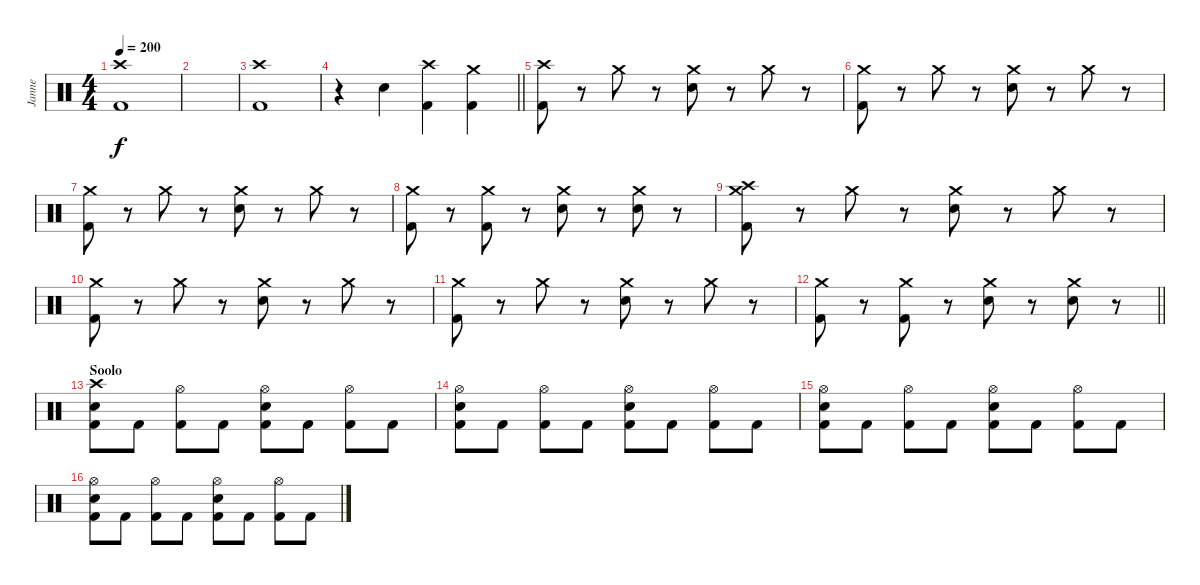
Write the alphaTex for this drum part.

\track ("Janne" "Janne") {instrument percussion}
\staff {score}
\articulation defaults
\ts (4 4)
\tempo 200
\clef neutral
\ks c
("Crash high (hit)" "Kick (hit) 2").1{dy f} |
|
("Crash high (hit)" "Kick (hit) 2").1 |
\barLineRight lightlight
r.4 "Electric Snare (hit)".4 ("Crash high (hit)" "Kick (hit) 2").4 ("Crash medium (hit)" "Kick (hit) 2").4 |
\section ("" "")
("Crash high (hit)" "Kick (hit) 2").8 r.8 "Crash medium (hit)".8 r.8 ("Crash medium (hit)" "Electric Snare (hit)").8 r.8 "Crash medium (hit)".8 r.8 |
("Crash medium (hit)" "Kick (hit) 2").8 r.8 "Crash medium (hit)".8 r.8 ("Crash medium (hit)" "Electric Snare (hit)").8 r.8 "Crash medium (hit)".8 r.8 |
("Crash medium (hit)" "Kick (hit) 2").8 r.8 "Crash medium (hit)".8 r.8 ("Crash medium (hit)" "Electric Snare (hit)").8 r.8 "Crash medium (hit)".8 r.8 |
("Crash medium (hit)" "Kick (hit) 2").8 r.8 ("Crash medium (hit)" "Kick (hit) 2").8 r.8 ("Crash medium (hit)" "Electric Snare (hit)").8 r.8 ("Crash medium (hit)" "Electric Snare (hit)").8 r.8 |
("Crash high (hit)" "Crash medium (hit)" "Kick (hit) 2").8 r.8 "Crash medium (hit)".8 r.8 ("Crash medium (hit)" "Electric Snare (hit)").8 r.8 "Crash medium (hit)".8 r.8 |
("Crash medium (hit)" "Kick (hit) 2").8 r.8 "Crash medium (hit)".8 r.8 ("Crash medium (hit)" "Electric Snare (hit)").8 r.8 "Crash medium (hit)".8 r.8 |
("Crash medium (hit)" "Kick (hit) 2").8 r.8 "Crash medium (hit)".8 r.8 ("Crash medium (hit)" "Electric Snare (hit)").8 r.8 "Crash medium (hit)".8 r.8 |
\barLineRight lightlight
("Crash medium (hit)" "Kick (hit) 2").8 r.8 ("Crash medium (hit)" "Kick (hit) 2").8 r.8 ("Crash medium (hit)" "Electric Snare (hit)").8 r.8 ("Crash medium (hit)" "Electric Snare (hit)").8 r.8 |
\section ("" "Soolo")
("Crash high (hit)" "Electric Snare (hit)" "Kick (hit) 2").8 "Kick (hit) 2".8 ("Hi-Hat (open)" "Kick (hit) 2").8 "Kick (hit) 2".8 ("Hi-Hat (open)" "Electric Snare (hit)" "Kick (hit) 2").8 "Kick (hit) 2".8 ("Hi-Hat (open)" "Kick (hit) 2").8 "Kick (hit) 2".8 |
("Hi-Hat (open)" "Electric Snare (hit)" "Kick (hit) 2").8 "Kick (hit) 2".8 ("Hi-Hat (open)" "Kick (hit) 2").8 "Kick (hit) 2".8 ("Hi-Hat (open)" "Electric Snare (hit)" "Kick (hit) 2").8 "Kick (hit) 2".8 ("Hi-Hat (open)" "Kick (hit) 2").8 "Kick (hit) 2".8 |
("Hi-Hat (open)" "Electric Snare (hit)" "Kick (hit) 2").8 "Kick (hit) 2".8 ("Hi-Hat (open)" "Kick (hit) 2").8 "Kick (hit) 2".8 ("Hi-Hat (open)" "Electric Snare (hit)" "Kick (hit) 2").8 "Kick (hit) 2".8 ("Hi-Hat (open)" "Kick (hit) 2").8 "Kick (hit) 2".8 |
("Hi-Hat (open)" "Electric Snare (hit)" "Kick (hit) 2").8 "Kick (hit) 2".8 ("Hi-Hat (open)" "Kick (hit) 2").8 "Kick (hit) 2".8 ("Hi-Hat (open)" "Electric Snare (hit)" "Kick (hit) 2").8 "Kick (hit) 2".8 ("Hi-Hat (open)" "Kick (hit) 2").8 "Kick (hit) 2".8
